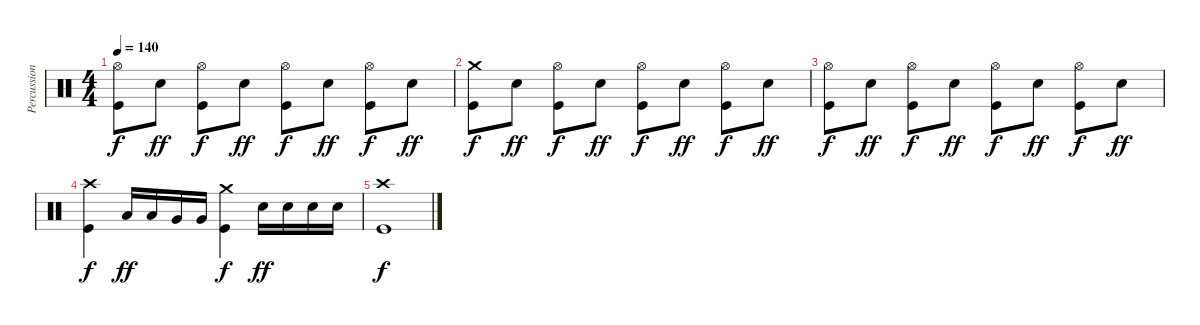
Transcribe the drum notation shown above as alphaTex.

\track ("Percussions" "Percussion") {instrument percussion}
\staff {score}
\articulation defaults
\ts (4 4)
\tempo 140
\clef neutral
\ks c
("Hi-Hat (open)" "Kick (hit)").8{dy f} "Snare (hit) 2".8{dy ff} ("Hi-Hat (open)" "Kick (hit)").8{dy f} "Snare (hit) 2".8{dy ff} ("Hi-Hat (open)" "Kick (hit)").8{dy f} "Snare (hit) 2".8{dy ff} ("Hi-Hat (open)" "Kick (hit)").8{dy f} "Snare (hit) 2".8{dy ff} |
("Crash medium (hit)" "Kick (hit)").8{dy f} "Snare (hit) 2".8{dy ff} ("Hi-Hat (open)" "Kick (hit)").8{dy f} "Snare (hit) 2".8{dy ff} ("Hi-Hat (open)" "Kick (hit)").8{dy f} "Snare (hit) 2".8{dy ff} ("Hi-Hat (open)" "Kick (hit)").8{dy f} "Snare (hit) 2".8{dy ff} |
("Hi-Hat (open)" "Kick (hit)").8{dy f} "Snare (hit) 2".8{dy ff} ("Hi-Hat (open)" "Kick (hit)").8{dy f} "Snare (hit) 2".8{dy ff} ("Hi-Hat (open)" "Kick (hit)").8{dy f} "Snare (hit) 2".8{dy ff} ("Hi-Hat (open)" "Kick (hit)").8{dy f} "Snare (hit) 2".8{dy ff} |
("Crash high (hit)" "Kick (hit)").4{dy f} "Low Tom (hit)".16{dy ff} "Low Tom (hit)".16 "Very Low Tom (hit)".16 "Very Low Tom (hit)".16 ("Crash medium (hit)" "Kick (hit)").4{dy f} "Snare (hit) 2".16{dy ff} "Snare (hit) 2".16 "Snare (hit) 2".16 "Snare (hit) 2".16 |
("Crash high (hit)" "Kick (hit)").1{dy f}
